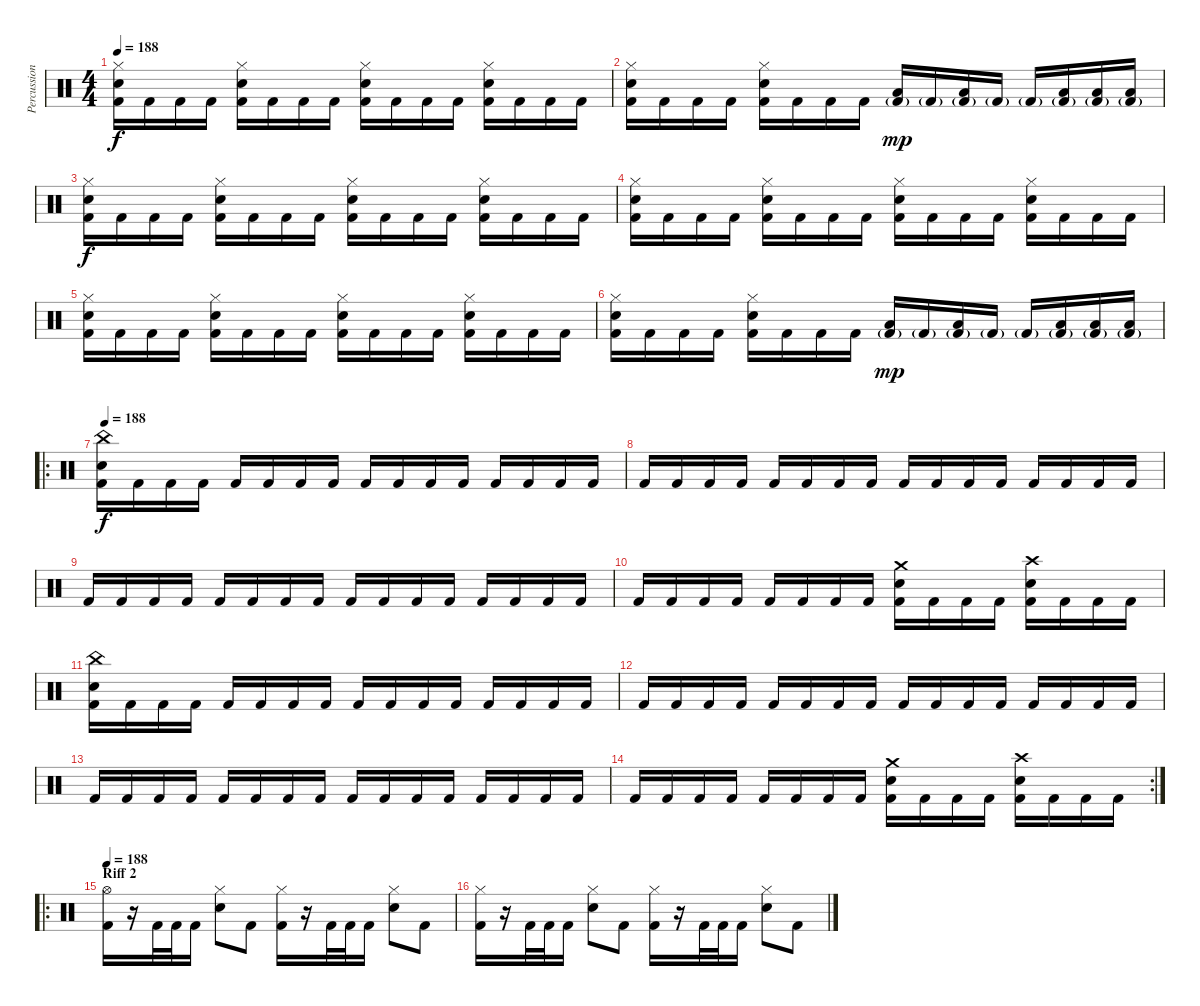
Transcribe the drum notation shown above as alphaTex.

\track ("Percussion" "Percussion") {instrument percussion}
\staff {score}
\articulation defaults
\ts (4 4)
\tempo 188
\clef neutral
\ks c
("Hi-Hat (closed)" "Electric Snare (hit)" "Kick (hit) 2").16{dy f} "Kick (hit) 2".16 "Kick (hit) 2".16 "Kick (hit) 2".16 ("Hi-Hat (closed)" "Electric Snare (hit)" "Kick (hit) 2").16 "Kick (hit) 2".16 "Kick (hit) 2".16 "Kick (hit) 2".16 ("Hi-Hat (closed)" "Electric Snare (hit)" "Kick (hit) 2").16 "Kick (hit) 2".16 "Kick (hit) 2".16 "Kick (hit) 2".16 ("Hi-Hat (closed)" "Electric Snare (hit)" "Kick (hit) 2").16 "Kick (hit) 2".16 "Kick (hit) 2".16 "Kick (hit) 2".16 |
("Hi-Hat (closed)" "Electric Snare (hit)" "Kick (hit) 2").16 "Kick (hit) 2".16 "Kick (hit) 2".16 "Kick (hit) 2".16 ("Hi-Hat (closed)" "Electric Snare (hit)" "Kick (hit) 2").16 "Kick (hit) 2".16 "Kick (hit) 2".16 "Kick (hit) 2".16 ("Low Floor Tom (hit)" "Kick (hit) 2"{g}).16{dy mp} "Kick (hit) 2"{g}.16 ("Low Floor Tom (hit)" "Kick (hit) 2"{g}).16 "Kick (hit) 2"{g}.16 "Kick (hit) 2"{g}.16 ("Low Floor Tom (hit)" "Kick (hit) 2"{g}).16 ("Low Floor Tom (hit)" "Kick (hit) 2"{g}).16 ("Low Floor Tom (hit)" "Kick (hit) 2"{g}).16 |
("Hi-Hat (closed)" "Electric Snare (hit)" "Kick (hit) 2").16{dy f} "Kick (hit) 2".16 "Kick (hit) 2".16 "Kick (hit) 2".16 ("Hi-Hat (closed)" "Electric Snare (hit)" "Kick (hit) 2").16 "Kick (hit) 2".16 "Kick (hit) 2".16 "Kick (hit) 2".16 ("Hi-Hat (closed)" "Electric Snare (hit)" "Kick (hit) 2").16 "Kick (hit) 2".16 "Kick (hit) 2".16 "Kick (hit) 2".16 ("Hi-Hat (closed)" "Electric Snare (hit)" "Kick (hit) 2").16 "Kick (hit) 2".16 "Kick (hit) 2".16 "Kick (hit) 2".16 |
("Hi-Hat (closed)" "Electric Snare (hit)" "Kick (hit) 2").16 "Kick (hit) 2".16 "Kick (hit) 2".16 "Kick (hit) 2".16 ("Hi-Hat (closed)" "Electric Snare (hit)" "Kick (hit) 2").16 "Kick (hit) 2".16 "Kick (hit) 2".16 "Kick (hit) 2".16 ("Hi-Hat (closed)" "Electric Snare (hit)" "Kick (hit) 2").16 "Kick (hit) 2".16 "Kick (hit) 2".16 "Kick (hit) 2".16 ("Hi-Hat (closed)" "Electric Snare (hit)" "Kick (hit) 2").16 "Kick (hit) 2".16 "Kick (hit) 2".16 "Kick (hit) 2".16 |
("Hi-Hat (closed)" "Electric Snare (hit)" "Kick (hit) 2").16 "Kick (hit) 2".16 "Kick (hit) 2".16 "Kick (hit) 2".16 ("Hi-Hat (closed)" "Electric Snare (hit)" "Kick (hit) 2").16 "Kick (hit) 2".16 "Kick (hit) 2".16 "Kick (hit) 2".16 ("Hi-Hat (closed)" "Electric Snare (hit)" "Kick (hit) 2").16 "Kick (hit) 2".16 "Kick (hit) 2".16 "Kick (hit) 2".16 ("Hi-Hat (closed)" "Electric Snare (hit)" "Kick (hit) 2").16 "Kick (hit) 2".16 "Kick (hit) 2".16 "Kick (hit) 2".16 |
("Hi-Hat (closed)" "Electric Snare (hit)" "Kick (hit) 2").16 "Kick (hit) 2".16 "Kick (hit) 2".16 "Kick (hit) 2".16 ("Hi-Hat (closed)" "Electric Snare (hit)" "Kick (hit) 2").16 "Kick (hit) 2".16 "Kick (hit) 2".16 "Kick (hit) 2".16 ("Low Floor Tom (hit)" "Kick (hit) 2"{g}).16{dy mp} "Kick (hit) 2"{g}.16 ("Low Floor Tom (hit)" "Kick (hit) 2"{g}).16 "Kick (hit) 2"{g}.16 "Kick (hit) 2"{g}.16 ("Low Floor Tom (hit)" "Kick (hit) 2"{g}).16 ("Low Floor Tom (hit)" "Kick (hit) 2"{g}).16 ("Low Floor Tom (hit)" "Kick (hit) 2"{g}).16 |
\ro
\tempo 188
("China (hit)" "Electric Snare (hit)" "Kick (hit) 2").16{dy f} "Kick (hit) 2".16 "Kick (hit) 2".16 "Kick (hit) 2".16 "Kick (hit) 2".16 "Kick (hit) 2".16 "Kick (hit) 2".16 "Kick (hit) 2".16 "Kick (hit) 2".16 "Kick (hit) 2".16 "Kick (hit) 2".16 "Kick (hit) 2".16 "Kick (hit) 2".16 "Kick (hit) 2".16 "Kick (hit) 2".16 "Kick (hit) 2".16 |
"Kick (hit) 2".16 "Kick (hit) 2".16 "Kick (hit) 2".16 "Kick (hit) 2".16 "Kick (hit) 2".16 "Kick (hit) 2".16 "Kick (hit) 2".16 "Kick (hit) 2".16 "Kick (hit) 2".16 "Kick (hit) 2".16 "Kick (hit) 2".16 "Kick (hit) 2".16 "Kick (hit) 2".16 "Kick (hit) 2".16 "Kick (hit) 2".16 "Kick (hit) 2".16 |
"Kick (hit) 2".16 "Kick (hit) 2".16 "Kick (hit) 2".16 "Kick (hit) 2".16 "Kick (hit) 2".16 "Kick (hit) 2".16 "Kick (hit) 2".16 "Kick (hit) 2".16 "Kick (hit) 2".16 "Kick (hit) 2".16 "Kick (hit) 2".16 "Kick (hit) 2".16 "Kick (hit) 2".16 "Kick (hit) 2".16 "Kick (hit) 2".16 "Kick (hit) 2".16 |
"Kick (hit) 2".16 "Kick (hit) 2".16 "Kick (hit) 2".16 "Kick (hit) 2".16 "Kick (hit) 2".16 "Kick (hit) 2".16 "Kick (hit) 2".16 "Kick (hit) 2".16 ("Crash medium (hit)" "Electric Snare (hit)" "Kick (hit) 2").16 "Kick (hit) 2".16 "Kick (hit) 2".16 "Kick (hit) 2".16 ("Crash high (hit)" "Electric Snare (hit)" "Kick (hit) 2").16 "Kick (hit) 2".16 "Kick (hit) 2".16 "Kick (hit) 2".16 |
("China (hit)" "Electric Snare (hit)" "Kick (hit) 2").16 "Kick (hit) 2".16 "Kick (hit) 2".16 "Kick (hit) 2".16 "Kick (hit) 2".16 "Kick (hit) 2".16 "Kick (hit) 2".16 "Kick (hit) 2".16 "Kick (hit) 2".16 "Kick (hit) 2".16 "Kick (hit) 2".16 "Kick (hit) 2".16 "Kick (hit) 2".16 "Kick (hit) 2".16 "Kick (hit) 2".16 "Kick (hit) 2".16 |
"Kick (hit) 2".16 "Kick (hit) 2".16 "Kick (hit) 2".16 "Kick (hit) 2".16 "Kick (hit) 2".16 "Kick (hit) 2".16 "Kick (hit) 2".16 "Kick (hit) 2".16 "Kick (hit) 2".16 "Kick (hit) 2".16 "Kick (hit) 2".16 "Kick (hit) 2".16 "Kick (hit) 2".16 "Kick (hit) 2".16 "Kick (hit) 2".16 "Kick (hit) 2".16 |
"Kick (hit) 2".16 "Kick (hit) 2".16 "Kick (hit) 2".16 "Kick (hit) 2".16 "Kick (hit) 2".16 "Kick (hit) 2".16 "Kick (hit) 2".16 "Kick (hit) 2".16 "Kick (hit) 2".16 "Kick (hit) 2".16 "Kick (hit) 2".16 "Kick (hit) 2".16 "Kick (hit) 2".16 "Kick (hit) 2".16 "Kick (hit) 2".16 "Kick (hit) 2".16 |
\rc 2 "Kick (hit) 2".16 "Kick (hit) 2".16 "Kick (hit) 2".16 "Kick (hit) 2".16 "Kick (hit) 2".16 "Kick (hit) 2".16 "Kick (hit) 2".16 "Kick (hit) 2".16
("Crash medium (hit)" "Electric Snare (hit)" "Kick (hit) 2").16 "Kick (hit) 2".16 "Kick (hit) 2".16 "Kick (hit) 2".16 ("Crash high (hit)" "Electric Snare (hit)" "Kick (hit) 2").16 "Kick (hit) 2".16 "Kick (hit) 2".16 "Kick (hit) 2".16 |
\ro
\section ("" "Riff 2")
\tempo 188
("Hi-Hat (open)" "Kick (hit) 2").16 r.16 "Kick (hit) 2".32 "Kick (hit) 2".32 "Kick (hit) 2".16 ("Hi-Hat (closed)" "Electric Snare (hit)").8 "Kick (hit) 2".8 ("Hi-Hat (closed)" "Kick (hit) 2").16 r.16 "Kick (hit) 2".32 "Kick (hit) 2".32 "Kick (hit) 2".16 ("Hi-Hat (closed)" "Electric Snare (hit)").8 "Kick (hit) 2".8 |
("Hi-Hat (closed)" "Kick (hit) 2").16 r.16 "Kick (hit) 2".32 "Kick (hit) 2".32 "Kick (hit) 2".16 ("Hi-Hat (closed)" "Electric Snare (hit)").8 "Kick (hit) 2".8 ("Hi-Hat (closed)" "Kick (hit) 2").16 r.16 "Kick (hit) 2".32 "Kick (hit) 2".32 "Kick (hit) 2".16 ("Hi-Hat (closed)" "Electric Snare (hit)").8 "Kick (hit) 2".8
